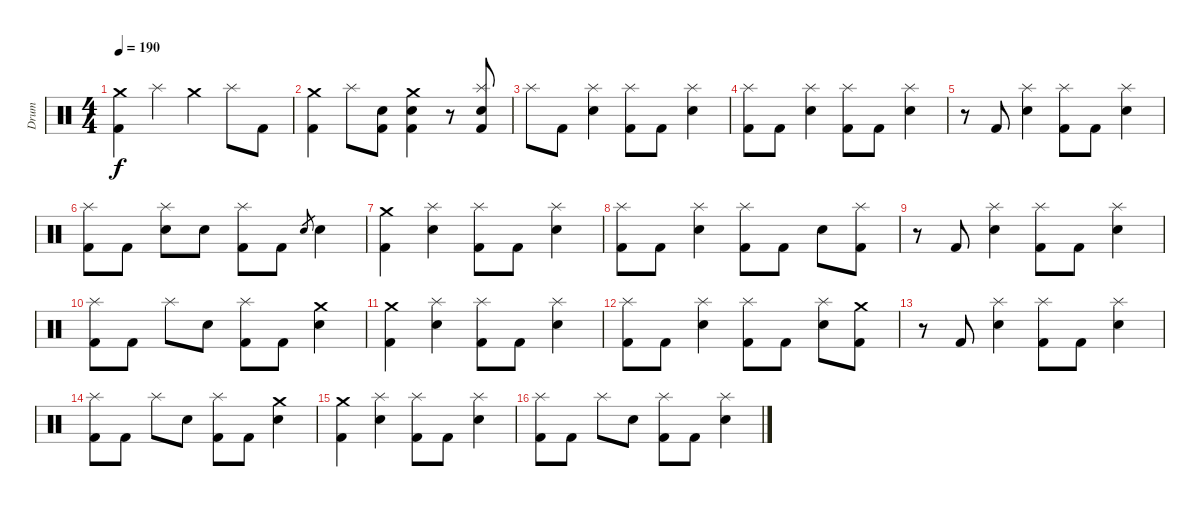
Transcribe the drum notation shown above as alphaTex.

\track ("Drum" "Drum") {instrument percussion}
\staff {score}
\articulation defaults
\ts (4 4)
\tempo 190
\clef neutral
\ks c
("Crash medium (hit)" "Kick (hit) 2").4{dy f} "Splash (hit)".4 "Crash medium (hit)".4 "Splash (hit)".8 "Kick (hit) 2".8 |
("Crash medium (hit)" "Kick (hit) 2").4 "Splash (hit)".8 ("Snare (hit) 2" "Kick (hit) 2").8 ("Crash medium (hit)" "Electric Snare (hit)" "Kick (hit) 2").4 r.8 ("Splash (hit)" "Electric Snare (hit)" "Kick (hit) 2").8 |
"Splash (hit)".8 "Kick (hit) 2".8 ("Splash (hit)" "Electric Snare (hit)").4 ("Splash (hit)" "Kick (hit) 2").8 "Kick (hit) 2".8 ("Splash (hit)" "Electric Snare (hit)").4 |
("Splash (hit)" "Kick (hit) 2").8 "Kick (hit) 2".8 ("Splash (hit)" "Electric Snare (hit)").4 ("Splash (hit)" "Kick (hit) 2").8 "Kick (hit) 2".8 ("Splash (hit)" "Electric Snare (hit)").4 |
r.8 "Kick (hit) 2".8 ("Splash (hit)" "Electric Snare (hit)").4 ("Splash (hit)" "Kick (hit) 2").8 "Kick (hit) 2".8 ("Splash (hit)" "Electric Snare (hit)").4 |
("Splash (hit)" "Kick (hit) 2").8 "Kick (hit) 2".8 ("Splash (hit)" "Electric Snare (hit)").8 "Electric Snare (hit)".8 ("Splash (hit)" "Kick (hit) 2").8 "Kick (hit) 2".8 "Electric Snare (hit)".8{gr} "Electric Snare (hit)".4 |
("Crash medium (hit)" "Kick (hit) 2").4 ("Splash (hit)" "Electric Snare (hit)").4 ("Splash (hit)" "Kick (hit) 2").8 "Kick (hit) 2".8 ("Splash (hit)" "Electric Snare (hit)").4 |
("Splash (hit)" "Kick (hit) 2").8 "Kick (hit) 2".8 ("Splash (hit)" "Electric Snare (hit)").4 ("Splash (hit)" "Kick (hit) 2").8 "Kick (hit) 2".8 "Electric Snare (hit)".8 ("Splash (hit)" "Kick (hit) 2").8 |
r.8 "Kick (hit) 2".8 ("Splash (hit)" "Electric Snare (hit)").4 ("Splash (hit)" "Kick (hit) 2").8 "Kick (hit) 2".8 ("Splash (hit)" "Electric Snare (hit)").4 |
("Splash (hit)" "Kick (hit) 2").8 "Kick (hit) 2".8 "Splash (hit)".8 "Electric Snare (hit)".8 ("Splash (hit)" "Kick (hit) 2").8 "Kick (hit) 2".8 ("Crash medium (hit)" "Electric Snare (hit)").4 |
("Crash medium (hit)" "Kick (hit) 2").4 ("Splash (hit)" "Electric Snare (hit)").4 ("Splash (hit)" "Kick (hit) 2").8 "Kick (hit) 2".8 ("Splash (hit)" "Electric Snare (hit)").4 |
("Splash (hit)" "Kick (hit) 2").8 "Kick (hit) 2".8 ("Splash (hit)" "Electric Snare (hit)").4 ("Splash (hit)" "Kick (hit) 2").8 "Kick (hit) 2".8 ("Splash (hit)" "Electric Snare (hit)").8 ("Crash medium (hit)" "Kick (hit) 2").8 |
r.8 "Kick (hit) 2".8 ("Splash (hit)" "Electric Snare (hit)").4 ("Splash (hit)" "Kick (hit) 2").8 "Kick (hit) 2".8 ("Splash (hit)" "Electric Snare (hit)").4 |
("Splash (hit)" "Kick (hit) 2").8 "Kick (hit) 2".8 "Splash (hit)".8 "Electric Snare (hit)".8 ("Splash (hit)" "Kick (hit) 2").8 "Kick (hit) 2".8 ("Crash medium (hit)" "Electric Snare (hit)").4 |
("Crash medium (hit)" "Kick (hit) 2").4 ("Splash (hit)" "Electric Snare (hit)").4 ("Splash (hit)" "Kick (hit) 2").8 "Kick (hit) 2".8 ("Splash (hit)" "Electric Snare (hit)").4 |
("Splash (hit)" "Kick (hit) 2").8 "Kick (hit) 2".8 "Splash (hit)".8 "Electric Snare (hit)".8 ("Splash (hit)" "Kick (hit) 2").8 "Kick (hit) 2".8 ("Splash (hit)" "Electric Snare (hit)").4
